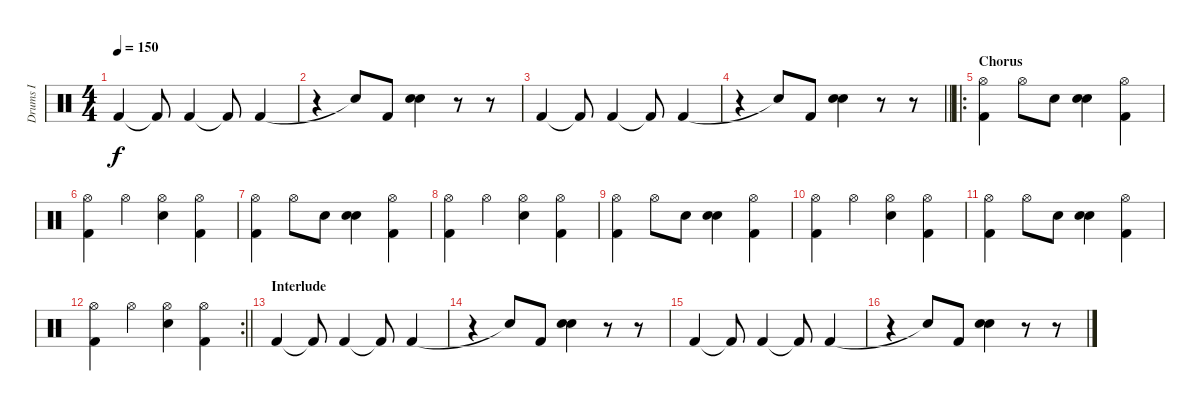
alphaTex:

\track ("Drums I" "Drums I") {instrument percussion}
\staff {score}
\articulation defaults
\ts (4 4)
\tempo 150
\clef neutral
\ks c "Kick (hit) 2".4{dy f} "Kick (hit) 2"{t}.8 "Kick (hit) 2".4 "Kick (hit) 2"{t}.8 "Kick (hit) 2".4
|
r.4 "Snare (hit)"{t}.8 "Kick (hit) 2".8 ("Snare (hit) 2" "Electric Snare (hit)").4 r.8 r.8 |
"Kick (hit) 2".4 "Kick (hit) 2"{t}.8 "Kick (hit) 2".4 "Kick (hit) 2"{t}.8 "Kick (hit) 2".4 |
\barLineRight lightlight
r.4 "Snare (hit)"{t}.8 "Kick (hit) 2".8 ("Snare (hit) 2" "Electric Snare (hit)").4 r.8 r.8 |
\ro
\section ("" "Chorus")
("Hi-Hat (open)" "Kick (hit) 2").4 "Hi-Hat (open)".8 "Snare (hit) 2".8 ("Snare (hit) 2" "Electric Snare (hit)").4 ("Hi-Hat (open)" "Kick (hit) 2").4 |
("Hi-Hat (open)" "Kick (hit) 2").4 "Hi-Hat (open)".4 ("Hi-Hat (open)" "Electric Snare (hit)").4 ("Hi-Hat (open)" "Kick (hit) 2").4 |
("Hi-Hat (open)" "Kick (hit) 2").4 "Hi-Hat (open)".8 "Snare (hit) 2".8 ("Snare (hit) 2" "Electric Snare (hit)").4 ("Hi-Hat (open)" "Kick (hit) 2").4 |
("Hi-Hat (open)" "Kick (hit) 2").4 "Hi-Hat (open)".4 ("Hi-Hat (open)" "Electric Snare (hit)").4 ("Hi-Hat (open)" "Kick (hit) 2").4 |
("Hi-Hat (open)" "Kick (hit) 2").4 "Hi-Hat (open)".8 "Snare (hit) 2".8 ("Snare (hit) 2" "Electric Snare (hit)").4 ("Hi-Hat (open)" "Kick (hit) 2").4 |
("Hi-Hat (open)" "Kick (hit) 2").4 "Hi-Hat (open)".4 ("Hi-Hat (open)" "Electric Snare (hit)").4 ("Hi-Hat (open)" "Kick (hit) 2").4 |
("Hi-Hat (open)" "Kick (hit) 2").4 "Hi-Hat (open)".8 "Snare (hit) 2".8 ("Snare (hit) 2" "Electric Snare (hit)").4 ("Hi-Hat (open)" "Kick (hit) 2").4 |
\rc 2
\barLineRight lightlight
("Hi-Hat (open)" "Kick (hit) 2").4 "Hi-Hat (open)".4 ("Hi-Hat (open)" "Electric Snare (hit)").4 ("Hi-Hat (open)" "Kick (hit) 2").4 |
\section ("" "Interlude")
"Kick (hit) 2".4 "Kick (hit) 2"{t}.8 "Kick (hit) 2".4 "Kick (hit) 2"{t}.8 "Kick (hit) 2".4 |
r.4 "Snare (hit)"{t}.8 "Kick (hit) 2".8 ("Snare (hit) 2" "Electric Snare (hit)").4 r.8 r.8 |
"Kick (hit) 2".4 "Kick (hit) 2"{t}.8 "Kick (hit) 2".4 "Kick (hit) 2"{t}.8 "Kick (hit) 2".4 |
r.4 "Snare (hit)"{t}.8 "Kick (hit) 2".8 ("Snare (hit) 2" "Electric Snare (hit)").4 r.8 r.8
